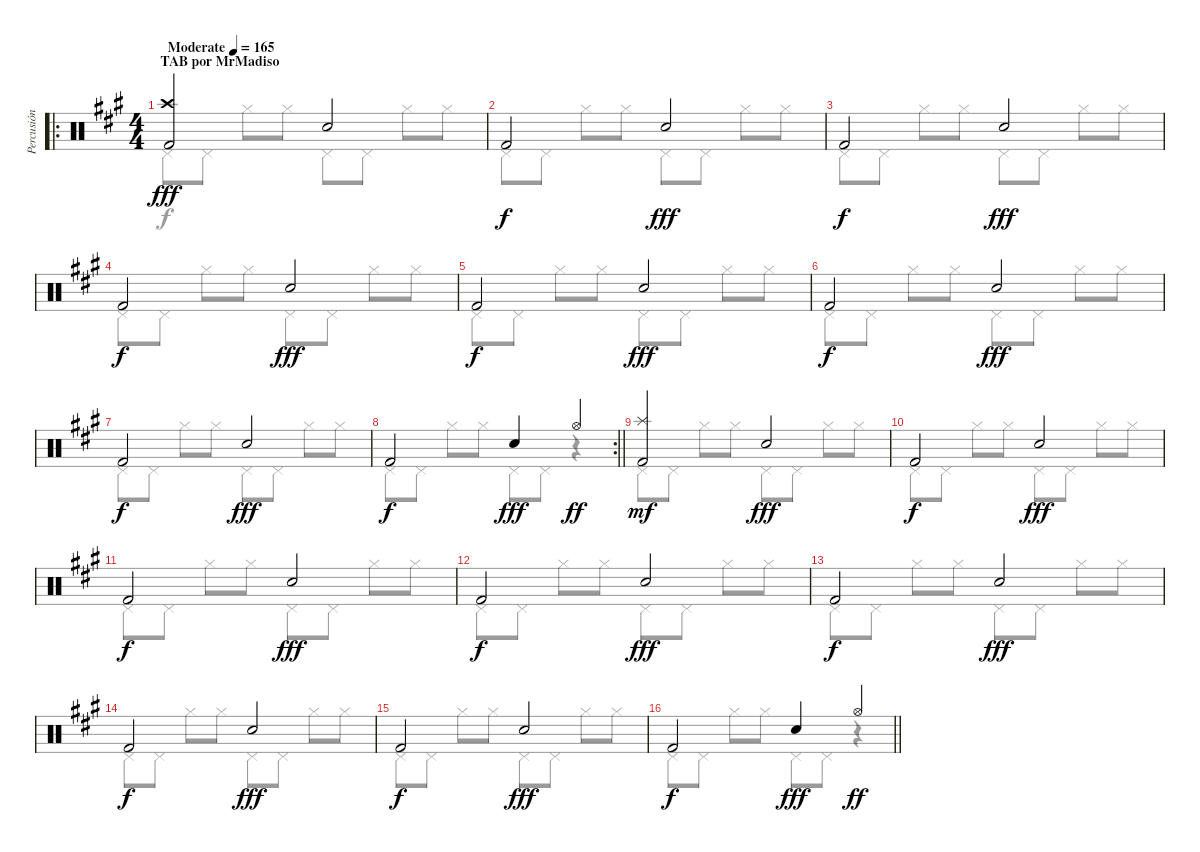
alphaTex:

\track ("Percusión" "Percusión") {instrument percussion}
\staff {score}
\articulation defaults
\voice
\ro
\ts (4 4)
\section ("" "TAB por MrMadiso")
\tempo (165 "Moderate")
\clef neutral
\ks a
("Crash high (hit)" "Kick (hit) 2").2{dy fff} "Snare (hit) 2".2 |
"Kick (hit) 2".2{dy f} "Snare (hit) 2".2{dy fff} |
"Kick (hit) 2".2{dy f} "Snare (hit) 2".2{dy fff} |
"Kick (hit) 2".2{dy f} "Snare (hit) 2".2{dy fff} |
"Kick (hit) 2".2{dy f} "Snare (hit) 2".2{dy fff} |
"Kick (hit) 2".2{dy f} "Snare (hit) 2".2{dy fff} |
"Kick (hit) 2".2{dy f} "Snare (hit) 2".2{dy fff} |
\rc 2
\barLineRight lightlight "Kick (hit) 2".2{dy f} "Snare (hit) 2".4{dy fff} "Hi-Hat (open)".4{dy ff}
|
("Splash (hit)" "Kick (hit) 2").2{dy mf} "Snare (hit) 2".2{dy fff} |
"Kick (hit) 2".2{dy f} "Snare (hit) 2".2{dy fff} |
"Kick (hit) 2".2{dy f} "Snare (hit) 2".2{dy fff} |
"Kick (hit) 2".2{dy f} "Snare (hit) 2".2{dy fff} |
"Kick (hit) 2".2{dy f} "Snare (hit) 2".2{dy fff} |
"Kick (hit) 2".2{dy f} "Snare (hit) 2".2{dy fff} |
"Kick (hit) 2".2{dy f} "Snare (hit) 2".2{dy fff} |
\barLineRight lightlight "Kick (hit) 2".2{dy f} "Snare (hit) 2".4{dy fff} "Hi-Hat (open)".4{dy ff}
\voice
\clef neutral
\ottava regular
\simile none
\ks a "Pedal Hi-Hat (hit)".8{dy f} "Pedal Hi-Hat (hit)".8 "Hi-Hat (closed)".8 "Hi-Hat (closed)".8 "Pedal Hi-Hat (hit)".8 "Pedal Hi-Hat (hit)".8 "Hi-Hat (closed)".8 "Hi-Hat (closed)".8
|
"Pedal Hi-Hat (hit)".8 "Pedal Hi-Hat (hit)".8 "Hi-Hat (closed)".8 "Hi-Hat (closed)".8 "Pedal Hi-Hat (hit)".8 "Pedal Hi-Hat (hit)".8 "Hi-Hat (closed)".8 "Hi-Hat (closed)".8 |
"Pedal Hi-Hat (hit)".8 "Pedal Hi-Hat (hit)".8 "Hi-Hat (closed)".8 "Hi-Hat (closed)".8 "Pedal Hi-Hat (hit)".8 "Pedal Hi-Hat (hit)".8 "Hi-Hat (closed)".8 "Hi-Hat (closed)".8 |
"Pedal Hi-Hat (hit)".8 "Pedal Hi-Hat (hit)".8 "Hi-Hat (closed)".8 "Hi-Hat (closed)".8 "Pedal Hi-Hat (hit)".8 "Pedal Hi-Hat (hit)".8 "Hi-Hat (closed)".8 "Hi-Hat (closed)".8 |
"Pedal Hi-Hat (hit)".8 "Pedal Hi-Hat (hit)".8 "Hi-Hat (closed)".8 "Hi-Hat (closed)".8 "Pedal Hi-Hat (hit)".8 "Pedal Hi-Hat (hit)".8 "Hi-Hat (closed)".8 "Hi-Hat (closed)".8 |
"Pedal Hi-Hat (hit)".8 "Pedal Hi-Hat (hit)".8 "Hi-Hat (closed)".8 "Hi-Hat (closed)".8 "Pedal Hi-Hat (hit)".8 "Pedal Hi-Hat (hit)".8 "Hi-Hat (closed)".8 "Hi-Hat (closed)".8 |
"Pedal Hi-Hat (hit)".8 "Pedal Hi-Hat (hit)".8 "Hi-Hat (closed)".8 "Hi-Hat (closed)".8 "Pedal Hi-Hat (hit)".8 "Pedal Hi-Hat (hit)".8 "Hi-Hat (closed)".8 "Hi-Hat (closed)".8 |
\barLineRight lightlight "Pedal Hi-Hat (hit)".8 "Pedal Hi-Hat (hit)".8 "Hi-Hat (closed)".8 "Hi-Hat (closed)".8 "Pedal Hi-Hat (hit)".8 "Pedal Hi-Hat (hit)".8
r.4 |
"Pedal Hi-Hat (hit)".8 "Pedal Hi-Hat (hit)".8 "Hi-Hat (closed)".8 "Hi-Hat (closed)".8 "Pedal Hi-Hat (hit)".8 "Pedal Hi-Hat (hit)".8 "Hi-Hat (closed)".8 "Hi-Hat (closed)".8 |
"Pedal Hi-Hat (hit)".8 "Pedal Hi-Hat (hit)".8 "Hi-Hat (closed)".8 "Hi-Hat (closed)".8 "Pedal Hi-Hat (hit)".8 "Pedal Hi-Hat (hit)".8 "Hi-Hat (closed)".8 "Hi-Hat (closed)".8 |
"Pedal Hi-Hat (hit)".8 "Pedal Hi-Hat (hit)".8 "Hi-Hat (closed)".8 "Hi-Hat (closed)".8 "Pedal Hi-Hat (hit)".8 "Pedal Hi-Hat (hit)".8 "Hi-Hat (closed)".8 "Hi-Hat (closed)".8 |
"Pedal Hi-Hat (hit)".8 "Pedal Hi-Hat (hit)".8 "Hi-Hat (closed)".8 "Hi-Hat (closed)".8 "Pedal Hi-Hat (hit)".8 "Pedal Hi-Hat (hit)".8 "Hi-Hat (closed)".8 "Hi-Hat (closed)".8 |
"Pedal Hi-Hat (hit)".8 "Pedal Hi-Hat (hit)".8 "Hi-Hat (closed)".8 "Hi-Hat (closed)".8 "Pedal Hi-Hat (hit)".8 "Pedal Hi-Hat (hit)".8 "Hi-Hat (closed)".8 "Hi-Hat (closed)".8 |
"Pedal Hi-Hat (hit)".8 "Pedal Hi-Hat (hit)".8 "Hi-Hat (closed)".8 "Hi-Hat (closed)".8 "Pedal Hi-Hat (hit)".8 "Pedal Hi-Hat (hit)".8 "Hi-Hat (closed)".8 "Hi-Hat (closed)".8 |
"Pedal Hi-Hat (hit)".8 "Pedal Hi-Hat (hit)".8 "Hi-Hat (closed)".8 "Hi-Hat (closed)".8 "Pedal Hi-Hat (hit)".8 "Pedal Hi-Hat (hit)".8 "Hi-Hat (closed)".8 "Hi-Hat (closed)".8 |
\barLineRight lightlight "Pedal Hi-Hat (hit)".8 "Pedal Hi-Hat (hit)".8 "Hi-Hat (closed)".8 "Hi-Hat (closed)".8 "Pedal Hi-Hat (hit)".8 "Pedal Hi-Hat (hit)".8
r.4
